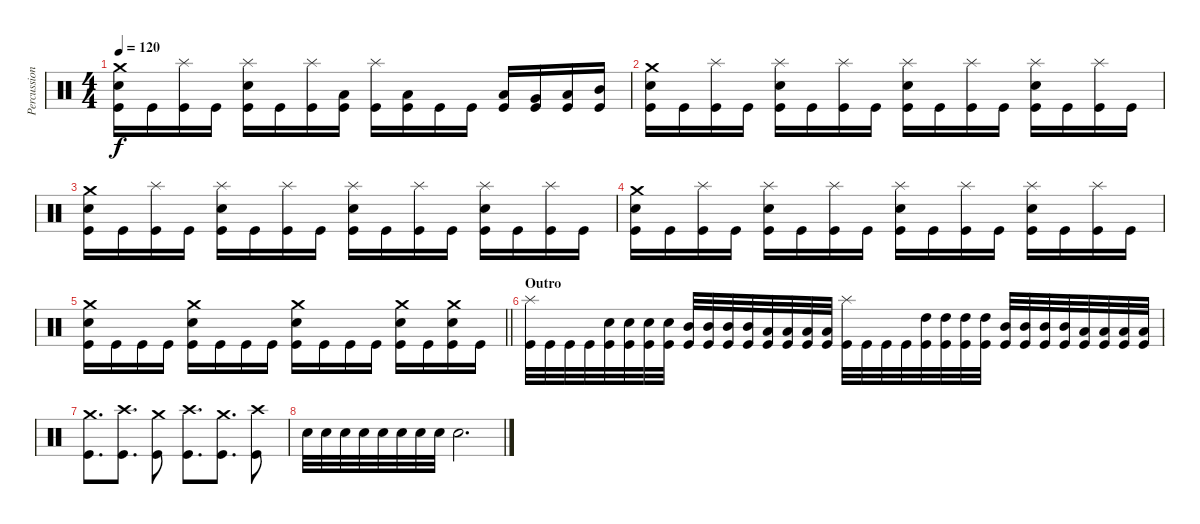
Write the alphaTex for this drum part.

\track ("Percussion" "Percussion") {instrument percussion}
\staff {score}
\articulation defaults
\ts (4 4)
\tempo 120
\clef neutral
\ks c
("Crash medium (hit)" "Electric Snare (hit)" "Kick (hit)").16{dy f} "Kick (hit)".16 ("Splash (hit)" "Kick (hit)").16 "Kick (hit)".16 ("Splash (hit)" "Electric Snare (hit)" "Kick (hit)").16 "Kick (hit)".16 ("Splash (hit)" "Kick (hit)").16 ("Low Floor Tom (hit)" "Kick (hit)").16 ("Splash (hit)" "Kick (hit)").16 ("Low Floor Tom (hit)" "Kick (hit)").16 "Kick (hit)".16 "Kick (hit)".16 ("Low Floor Tom (hit)" "Kick (hit)").16 ("Very Low Tom (hit)" "Kick (hit)").16 ("Low Tom (hit)" "Kick (hit)").16 ("Mid Tom (hit)" "Kick (hit)").16 |
("Crash medium (hit)" "Electric Snare (hit)" "Kick (hit)").16 "Kick (hit)".16 ("Splash (hit)" "Kick (hit)").16 "Kick (hit)".16 ("Splash (hit)" "Electric Snare (hit)" "Kick (hit)").16 "Kick (hit)".16 ("Splash (hit)" "Kick (hit)").16 "Kick (hit)".16 ("Splash (hit)" "Electric Snare (hit)" "Kick (hit)").16 "Kick (hit)".16 ("Splash (hit)" "Kick (hit)").16 "Kick (hit)".16 ("Splash (hit)" "Electric Snare (hit)" "Kick (hit)").16 "Kick (hit)".16 ("Splash (hit)" "Kick (hit)").16 "Kick (hit)".16 |
("Crash medium (hit)" "Electric Snare (hit)" "Kick (hit)").16 "Kick (hit)".16 ("Splash (hit)" "Kick (hit)").16 "Kick (hit)".16 ("Splash (hit)" "Electric Snare (hit)" "Kick (hit)").16 "Kick (hit)".16 ("Splash (hit)" "Kick (hit)").16 "Kick (hit)".16 ("Splash (hit)" "Electric Snare (hit)" "Kick (hit)").16 "Kick (hit)".16 ("Splash (hit)" "Kick (hit)").16 "Kick (hit)".16 ("Splash (hit)" "Electric Snare (hit)" "Kick (hit)").16 "Kick (hit)".16 ("Splash (hit)" "Kick (hit)").16 "Kick (hit)".16 |
("Crash medium (hit)" "Electric Snare (hit)" "Kick (hit)").16 "Kick (hit)".16 ("Splash (hit)" "Kick (hit)").16 "Kick (hit)".16 ("Splash (hit)" "Electric Snare (hit)" "Kick (hit)").16 "Kick (hit)".16 ("Splash (hit)" "Kick (hit)").16 "Kick (hit)".16 ("Splash (hit)" "Electric Snare (hit)" "Kick (hit)").16 "Kick (hit)".16 ("Splash (hit)" "Kick (hit)").16 "Kick (hit)".16 ("Splash (hit)" "Electric Snare (hit)" "Kick (hit)").16 "Kick (hit)".16 ("Splash (hit)" "Kick (hit)").16 "Kick (hit)".16 |
\barLineRight lightlight
("Crash medium (hit)" "Electric Snare (hit)" "Kick (hit)").16 "Kick (hit)".16 "Kick (hit)".16 "Kick (hit)".16 ("Crash medium (hit)" "Electric Snare (hit)" "Kick (hit)").16 "Kick (hit)".16 "Kick (hit)".16 "Kick (hit)".16 ("Crash medium (hit)" "Electric Snare (hit)" "Kick (hit)").16 "Kick (hit)".16 "Kick (hit)".16 "Kick (hit)".16 ("Crash medium (hit)" "Electric Snare (hit)" "Kick (hit)").16 "Kick (hit)".16 ("Crash medium (hit)" "Electric Snare (hit)" "Kick (hit)").16 "Kick (hit)".16 |
\section ("" "Outro")
("Splash (hit)" "Kick (hit)").32 "Kick (hit)".32 "Kick (hit)".32 "Kick (hit)".32 ("Electric Snare (hit)" "Kick (hit)").32 ("Electric Snare (hit)" "Kick (hit)").32 ("Electric Snare (hit)" "Kick (hit)").32 ("Electric Snare (hit)" "Kick (hit)").32 ("Mid Tom (hit)" "Kick (hit)").32 ("Mid Tom (hit)" "Kick (hit)").32 ("Mid Tom (hit)" "Kick (hit)").32 ("Mid Tom (hit)" "Kick (hit)").32 ("Low Tom (hit)" "Kick (hit)").32 ("Low Tom (hit)" "Kick (hit)").32 ("Low Tom (hit)" "Kick (hit)").32 ("Low Tom (hit)" "Kick (hit)").32 ("Splash (hit)" "Kick (hit)").32 "Kick (hit)".32 "Kick (hit)".32 "Kick (hit)".32 ("High Tom (hit)" "Kick (hit)").32 ("High Tom (hit)" "Kick (hit)").32 ("High Tom (hit)" "Kick (hit)").32 ("High Tom (hit)" "Kick (hit)").32 ("Mid Tom (hit)" "Kick (hit)").32 ("Mid Tom (hit)" "Kick (hit)").32 ("Mid Tom (hit)" "Kick (hit)").32 ("Mid Tom (hit)" "Kick (hit)").32 ("Low Tom (hit)" "Kick (hit)").32 ("Low Tom (hit)" "Kick (hit)").32 ("Low Tom (hit)" "Kick (hit)").32 ("Low Tom (hit)" "Kick (hit)").32 |
("Crash medium (hit)" "Kick (hit)").8{d} ("Crash high (hit)" "Kick (hit)").8{d} ("Crash medium (hit)" "Kick (hit)").8 ("Crash high (hit)" "Kick (hit)").8{d} ("Crash medium (hit)" "Kick (hit)").8{d} ("Crash high (hit)" "Kick (hit)").8 |
"Electric Snare (hit)".32 "Electric Snare (hit)".32 "Electric Snare (hit)".32 "Electric Snare (hit)".32 "Electric Snare (hit)".32 "Electric Snare (hit)".32 "Electric Snare (hit)".32 "Electric Snare (hit)".32 "Electric Snare (hit)".2{d}
